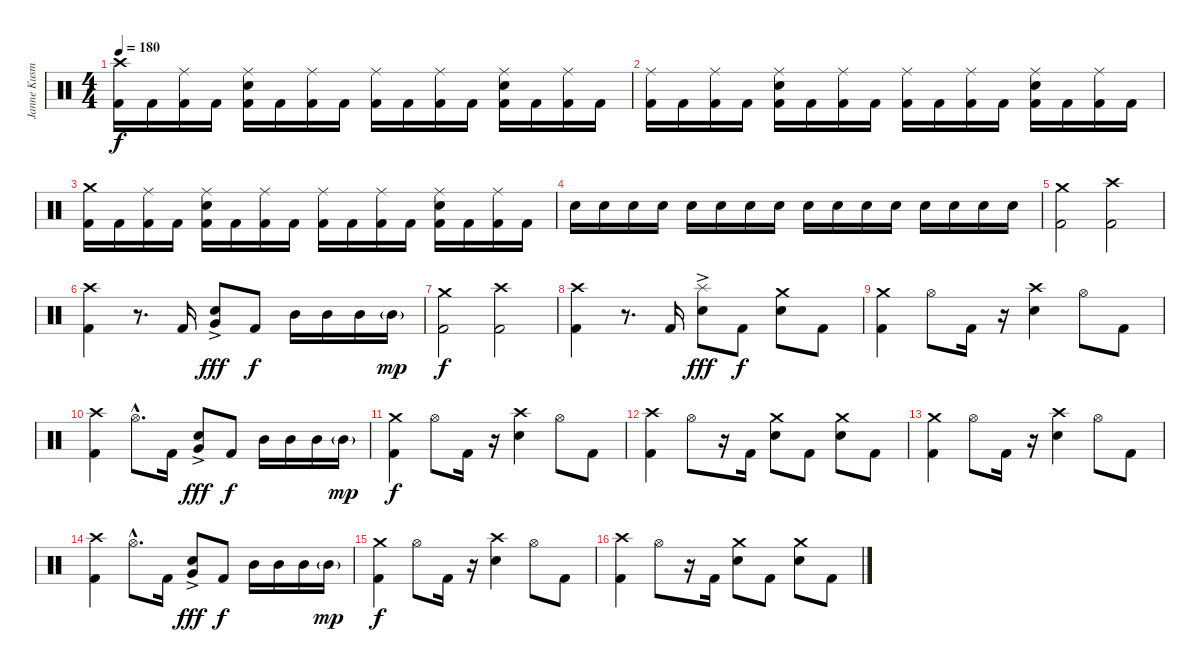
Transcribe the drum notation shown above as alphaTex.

\track ("Janne Kusmin - Drums" "Janne Kusm") {instrument percussion}
\staff {score}
\articulation defaults
\ts (4 4)
\tempo 180
\clef neutral
\ks c
("Crash high (hit)" "Kick (hit) 2").16{dy f} "Kick (hit) 2".16 ("Ride (middle)" "Kick (hit) 2").16 "Kick (hit) 2".16 ("Ride (middle)" "Electric Snare (hit)" "Kick (hit) 2").16 "Kick (hit) 2".16 ("Ride (middle)" "Kick (hit) 2").16 "Kick (hit) 2".16 ("Ride (middle)" "Kick (hit) 2").16 "Kick (hit) 2".16 ("Ride (middle)" "Kick (hit) 2").16 "Kick (hit) 2".16 ("Ride (middle)" "Electric Snare (hit)" "Kick (hit) 2").16 "Kick (hit) 2".16 ("Ride (middle)" "Kick (hit) 2").16 "Kick (hit) 2".16 |
("Ride (middle)" "Kick (hit) 2").16 "Kick (hit) 2".16 ("Ride (middle)" "Kick (hit) 2").16 "Kick (hit) 2".16 ("Ride (middle)" "Electric Snare (hit)" "Kick (hit) 2").16 "Kick (hit) 2".16 ("Ride (middle)" "Kick (hit) 2").16 "Kick (hit) 2".16 ("Ride (middle)" "Kick (hit) 2").16 "Kick (hit) 2".16 ("Ride (middle)" "Kick (hit) 2").16 "Kick (hit) 2".16 ("Ride (middle)" "Electric Snare (hit)" "Kick (hit) 2").16 "Kick (hit) 2".16 ("Ride (middle)" "Kick (hit) 2").16 "Kick (hit) 2".16 |
("Crash medium (hit)" "Kick (hit) 2").16 "Kick (hit) 2".16 ("Ride (middle)" "Kick (hit) 2").16 "Kick (hit) 2".16 ("Ride (middle)" "Electric Snare (hit)" "Kick (hit) 2").16 "Kick (hit) 2".16 ("Ride (middle)" "Kick (hit) 2").16 "Kick (hit) 2".16 ("Ride (middle)" "Kick (hit) 2").16 "Kick (hit) 2".16 ("Ride (middle)" "Kick (hit) 2").16 "Kick (hit) 2".16 ("Ride (middle)" "Electric Snare (hit)" "Kick (hit) 2").16 "Kick (hit) 2".16 ("Ride (middle)" "Kick (hit) 2").16 "Kick (hit) 2".16 |
"Electric Snare (hit)".16 "Electric Snare (hit)".16 "Electric Snare (hit)".16 "Electric Snare (hit)".16 "Electric Snare (hit)".16 "Electric Snare (hit)".16 "Electric Snare (hit)".16 "Electric Snare (hit)".16 "Electric Snare (hit)".16 "Electric Snare (hit)".16 "Electric Snare (hit)".16 "Electric Snare (hit)".16 "Electric Snare (hit)".16 "Electric Snare (hit)".16 "Electric Snare (hit)".16 "Electric Snare (hit)".16 |
\section ("" "")
("Crash medium (hit)" "Kick (hit) 2").2 ("Crash high (hit)" "Kick (hit) 2").2 |
("Crash high (hit)" "Kick (hit) 2").4 r.8{d} "Kick (hit) 2".16 ("Very Low Tom (hit)"{ac} "Electric Snare (hit)").8{dy fff} "Kick (hit) 2".8{dy f} "Mid Tom (hit)".16 "Mid Tom (hit)".16 "Mid Tom (hit)".16 "Mid Tom (hit)"{g}.16{dy mp} |
("Crash medium (hit)" "Kick (hit) 2").2{dy f} ("Crash high (hit)" "Kick (hit) 2").2 |
("Crash high (hit)" "Kick (hit) 2").4 r.8{d} "Kick (hit) 2".16 ("Splash (hit)"{ac} "Electric Snare (hit)").8{dy fff} "Kick (hit) 2".8{dy f} ("Crash medium (hit)" "Electric Snare (hit)").8 "Kick (hit) 2".8 |
("Crash medium (hit)" "Kick (hit) 2").4 "Hi-Hat (open)".8 "Kick (hit) 2".16 r.16 ("Crash high (hit)" "Electric Snare (hit)").4 "Hi-Hat (open)".8 "Kick (hit) 2".8 |
("Crash high (hit)" "Kick (hit) 2").4 "Hi-Hat (open)"{hac}.8{d} "Kick (hit) 2".16 ("Very Low Tom (hit)"{ac} "Electric Snare (hit)").8{dy fff} "Kick (hit) 2".8{dy f} "Mid Tom (hit)".16 "Mid Tom (hit)".16 "Mid Tom (hit)".16 "Mid Tom (hit)"{g}.16{dy mp} |
("Crash medium (hit)" "Kick (hit) 2").4{dy f} "Hi-Hat (open)".8 "Kick (hit) 2".16 r.16 ("Crash high (hit)" "Electric Snare (hit)").4 "Hi-Hat (open)".8 "Kick (hit) 2".8 |
("Crash high (hit)" "Kick (hit) 2").4 "Hi-Hat (open)".8 r.16 "Kick (hit) 2".16 ("Crash medium (hit)" "Electric Snare (hit)").8 "Kick (hit) 2".8 ("Crash medium (hit)" "Electric Snare (hit)").8 "Kick (hit) 2".8 |
("Crash medium (hit)" "Kick (hit) 2").4 "Hi-Hat (open)".8 "Kick (hit) 2".16 r.16 ("Crash high (hit)" "Electric Snare (hit)").4 "Hi-Hat (open)".8 "Kick (hit) 2".8 |
("Crash high (hit)" "Kick (hit) 2").4 "Hi-Hat (open)"{hac}.8{d} "Kick (hit) 2".16 ("Very Low Tom (hit)"{ac} "Electric Snare (hit)").8{dy fff} "Kick (hit) 2".8{dy f} "Mid Tom (hit)".16 "Mid Tom (hit)".16 "Mid Tom (hit)".16 "Mid Tom (hit)"{g}.16{dy mp} |
("Crash medium (hit)" "Kick (hit) 2").4{dy f} "Hi-Hat (open)".8 "Kick (hit) 2".16 r.16 ("Crash high (hit)" "Electric Snare (hit)").4 "Hi-Hat (open)".8 "Kick (hit) 2".8 |
("Crash high (hit)" "Kick (hit) 2").4 "Hi-Hat (open)".8 r.16 "Kick (hit) 2".16 ("Crash medium (hit)" "Electric Snare (hit)").8 "Kick (hit) 2".8 ("Crash medium (hit)" "Electric Snare (hit)").8 "Kick (hit) 2".8
